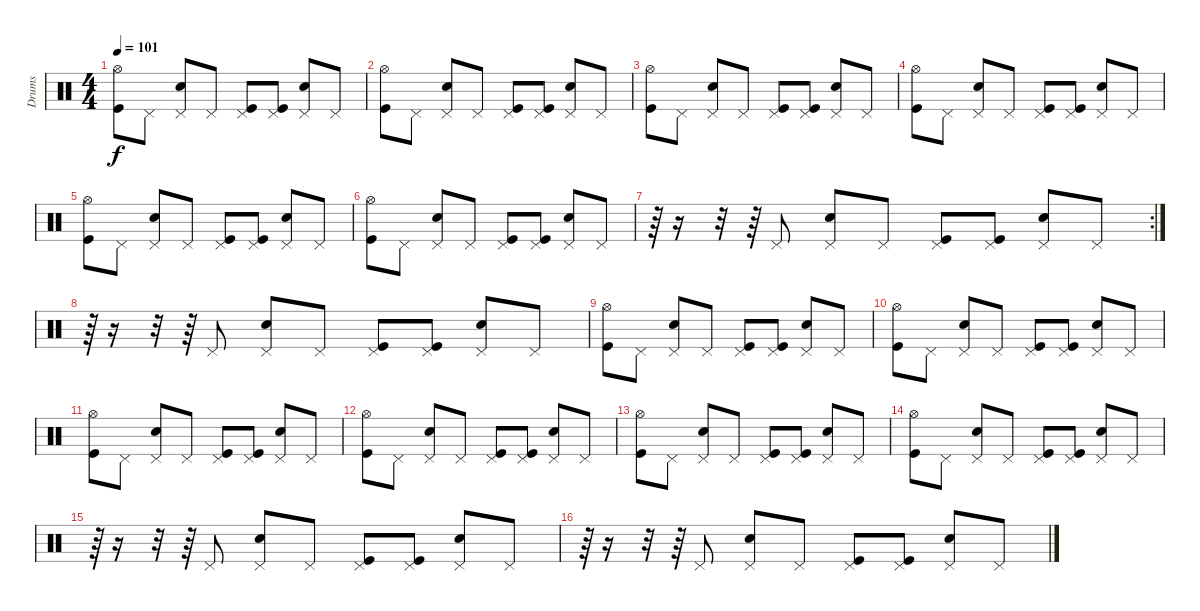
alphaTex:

\track ("Drums" "Drums") {instrument percussion}
\staff {score}
\articulation defaults
\ts (4 4)
\tempo 101
\clef neutral
\ks c
("Kick (hit)" "Hi-Hat (open)").8{dy f} "Pedal Hi-Hat (hit)".8 ("Electric Snare (hit)" "Pedal Hi-Hat (hit)").8 "Pedal Hi-Hat (hit)".8 ("Kick (hit)" "Pedal Hi-Hat (hit)").8 ("Kick (hit)" "Pedal Hi-Hat (hit)").8 ("Electric Snare (hit)" "Pedal Hi-Hat (hit)").8 "Pedal Hi-Hat (hit)".8 |
("Kick (hit)" "Hi-Hat (open)").8 "Pedal Hi-Hat (hit)".8 ("Electric Snare (hit)" "Pedal Hi-Hat (hit)").8 "Pedal Hi-Hat (hit)".8 ("Kick (hit)" "Pedal Hi-Hat (hit)").8 ("Kick (hit)" "Pedal Hi-Hat (hit)").8 ("Electric Snare (hit)" "Pedal Hi-Hat (hit)").8 "Pedal Hi-Hat (hit)".8 |
("Kick (hit)" "Hi-Hat (open)").8 "Pedal Hi-Hat (hit)".8 ("Electric Snare (hit)" "Pedal Hi-Hat (hit)").8 "Pedal Hi-Hat (hit)".8 ("Kick (hit)" "Pedal Hi-Hat (hit)").8 ("Kick (hit)" "Pedal Hi-Hat (hit)").8 ("Electric Snare (hit)" "Pedal Hi-Hat (hit)").8 "Pedal Hi-Hat (hit)".8 |
("Kick (hit)" "Hi-Hat (open)").8 "Pedal Hi-Hat (hit)".8 ("Electric Snare (hit)" "Pedal Hi-Hat (hit)").8 "Pedal Hi-Hat (hit)".8 ("Kick (hit)" "Pedal Hi-Hat (hit)").8 ("Kick (hit)" "Pedal Hi-Hat (hit)").8 ("Electric Snare (hit)" "Pedal Hi-Hat (hit)").8 "Pedal Hi-Hat (hit)".8 |
("Kick (hit)" "Hi-Hat (open)").8 "Pedal Hi-Hat (hit)".8 ("Electric Snare (hit)" "Pedal Hi-Hat (hit)").8 "Pedal Hi-Hat (hit)".8 ("Kick (hit)" "Pedal Hi-Hat (hit)").8 ("Kick (hit)" "Pedal Hi-Hat (hit)").8 ("Electric Snare (hit)" "Pedal Hi-Hat (hit)").8 "Pedal Hi-Hat (hit)".8 |
("Kick (hit)" "Hi-Hat (open)").8 "Pedal Hi-Hat (hit)".8 ("Electric Snare (hit)" "Pedal Hi-Hat (hit)").8 "Pedal Hi-Hat (hit)".8 ("Kick (hit)" "Pedal Hi-Hat (hit)").8 ("Kick (hit)" "Pedal Hi-Hat (hit)").8 ("Electric Snare (hit)" "Pedal Hi-Hat (hit)").8 "Pedal Hi-Hat (hit)".8 |
\rc 2
r.64 r.16 r.32 r.64 "Pedal Hi-Hat (hit)".8 ("Electric Snare (hit)" "Pedal Hi-Hat (hit)").8 "Pedal Hi-Hat (hit)".8 ("Kick (hit)" "Pedal Hi-Hat (hit)").8 ("Kick (hit)" "Pedal Hi-Hat (hit)").8 ("Electric Snare (hit)" "Pedal Hi-Hat (hit)").8 "Pedal Hi-Hat (hit)".8 |
r.64 r.16 r.32 r.64 "Pedal Hi-Hat (hit)".8 ("Electric Snare (hit)" "Pedal Hi-Hat (hit)").8 "Pedal Hi-Hat (hit)".8 ("Kick (hit)" "Pedal Hi-Hat (hit)").8 ("Kick (hit)" "Pedal Hi-Hat (hit)").8 ("Electric Snare (hit)" "Pedal Hi-Hat (hit)").8 "Pedal Hi-Hat (hit)".8 |
("Kick (hit)" "Hi-Hat (open)").8 "Pedal Hi-Hat (hit)".8 ("Electric Snare (hit)" "Pedal Hi-Hat (hit)").8 "Pedal Hi-Hat (hit)".8 ("Kick (hit)" "Pedal Hi-Hat (hit)").8 ("Kick (hit)" "Pedal Hi-Hat (hit)").8 ("Electric Snare (hit)" "Pedal Hi-Hat (hit)").8 "Pedal Hi-Hat (hit)".8 |
("Kick (hit)" "Hi-Hat (open)").8 "Pedal Hi-Hat (hit)".8 ("Electric Snare (hit)" "Pedal Hi-Hat (hit)").8 "Pedal Hi-Hat (hit)".8 ("Kick (hit)" "Pedal Hi-Hat (hit)").8 ("Kick (hit)" "Pedal Hi-Hat (hit)").8 ("Electric Snare (hit)" "Pedal Hi-Hat (hit)").8 "Pedal Hi-Hat (hit)".8 |
("Kick (hit)" "Hi-Hat (open)").8 "Pedal Hi-Hat (hit)".8 ("Electric Snare (hit)" "Pedal Hi-Hat (hit)").8 "Pedal Hi-Hat (hit)".8 ("Kick (hit)" "Pedal Hi-Hat (hit)").8 ("Kick (hit)" "Pedal Hi-Hat (hit)").8 ("Electric Snare (hit)" "Pedal Hi-Hat (hit)").8 "Pedal Hi-Hat (hit)".8 |
("Kick (hit)" "Hi-Hat (open)").8 "Pedal Hi-Hat (hit)".8 ("Electric Snare (hit)" "Pedal Hi-Hat (hit)").8 "Pedal Hi-Hat (hit)".8 ("Kick (hit)" "Pedal Hi-Hat (hit)").8 ("Kick (hit)" "Pedal Hi-Hat (hit)").8 ("Electric Snare (hit)" "Pedal Hi-Hat (hit)").8 "Pedal Hi-Hat (hit)".8 |
("Kick (hit)" "Hi-Hat (open)").8 "Pedal Hi-Hat (hit)".8 ("Electric Snare (hit)" "Pedal Hi-Hat (hit)").8 "Pedal Hi-Hat (hit)".8 ("Kick (hit)" "Pedal Hi-Hat (hit)").8 ("Kick (hit)" "Pedal Hi-Hat (hit)").8 ("Electric Snare (hit)" "Pedal Hi-Hat (hit)").8 "Pedal Hi-Hat (hit)".8 |
("Kick (hit)" "Hi-Hat (open)").8 "Pedal Hi-Hat (hit)".8 ("Electric Snare (hit)" "Pedal Hi-Hat (hit)").8 "Pedal Hi-Hat (hit)".8 ("Kick (hit)" "Pedal Hi-Hat (hit)").8 ("Kick (hit)" "Pedal Hi-Hat (hit)").8 ("Electric Snare (hit)" "Pedal Hi-Hat (hit)").8 "Pedal Hi-Hat (hit)".8 |
r.64 r.16 r.32 r.64 "Pedal Hi-Hat (hit)".8 ("Electric Snare (hit)" "Pedal Hi-Hat (hit)").8 "Pedal Hi-Hat (hit)".8 ("Kick (hit)" "Pedal Hi-Hat (hit)").8 ("Kick (hit)" "Pedal Hi-Hat (hit)").8 ("Electric Snare (hit)" "Pedal Hi-Hat (hit)").8 "Pedal Hi-Hat (hit)".8 |
r.64 r.16 r.32 r.64 "Pedal Hi-Hat (hit)".8 ("Electric Snare (hit)" "Pedal Hi-Hat (hit)").8 "Pedal Hi-Hat (hit)".8 ("Kick (hit)" "Pedal Hi-Hat (hit)").8 ("Kick (hit)" "Pedal Hi-Hat (hit)").8 ("Electric Snare (hit)" "Pedal Hi-Hat (hit)").8 "Pedal Hi-Hat (hit)".8
